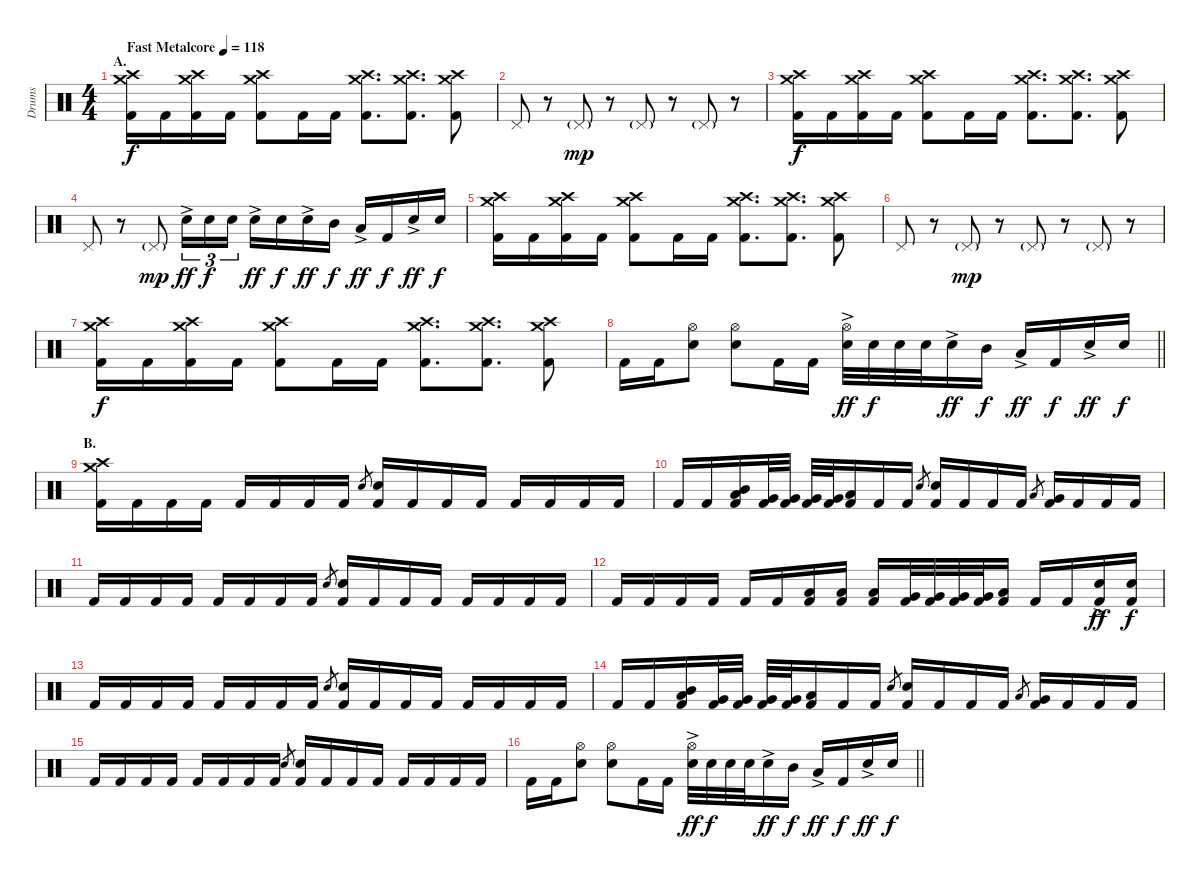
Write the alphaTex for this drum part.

\track ("Drums" "Drums") {instrument percussion}
\staff {score}
\articulation defaults
\ts (4 4)
\section ("" "A.")
\tempo (118 "Fast Metalcore")
\clef neutral
\ks c
("Crash medium (hit)" "Crash high (hit)" "Kick (hit) 2").16{dy f} "Kick (hit) 2".16 ("Crash medium (hit)" "Crash high (hit)" "Kick (hit) 2").16 "Kick (hit) 2".16 ("Crash medium (hit)" "Crash high (hit)" "Kick (hit) 2").8 "Kick (hit) 2".16 "Kick (hit) 2".16 ("Crash medium (hit)" "Crash high (hit)" "Kick (hit) 2").8{d} ("Crash medium (hit)" "Crash high (hit)" "Kick (hit) 2").8{d} ("Crash medium (hit)" "Crash high (hit)" "Kick (hit) 2").8 |
"Pedal Hi-Hat (hit)".8 r.8 "Pedal Hi-Hat (hit)"{g}.8{dy mp} r.8 "Pedal Hi-Hat (hit)"{g}.8 r.8 "Pedal Hi-Hat (hit)"{g}.8 r.8 |
("Crash medium (hit)" "Crash high (hit)" "Kick (hit) 2").16{dy f} "Kick (hit) 2".16 ("Crash medium (hit)" "Crash high (hit)" "Kick (hit) 2").16 "Kick (hit) 2".16 ("Crash medium (hit)" "Crash high (hit)" "Kick (hit) 2").8 "Kick (hit) 2".16 "Kick (hit) 2".16 ("Crash medium (hit)" "Crash high (hit)" "Kick (hit) 2").8{d} ("Crash medium (hit)" "Crash high (hit)" "Kick (hit) 2").8{d} ("Crash medium (hit)" "Crash high (hit)" "Kick (hit) 2").8 |
"Pedal Hi-Hat (hit)".8 r.8 "Pedal Hi-Hat (hit)"{g}.8{dy mp} "Electric Snare (hit)"{ac}.16{tu (3 2) dy ff} "Electric Snare (hit)".16{tu (3 2) dy f} "Electric Snare (hit)".16{tu (3 2)} "Electric Snare (hit)"{ac}.16{dy ff} "Electric Snare (hit)".16{dy f} "Electric Snare (hit)"{ac}.16{dy ff} "Mid Tom (hit)".16{dy f} "Low Tom (hit)"{ac}.16{dy ff} "Kick (hit) 2".16{dy f} "Electric Snare (hit)"{ac}.16{dy ff} "Electric Snare (hit)".16{dy f} |
("Crash medium (hit)" "Crash high (hit)" "Kick (hit) 2").16 "Kick (hit) 2".16 ("Crash medium (hit)" "Crash high (hit)" "Kick (hit) 2").16 "Kick (hit) 2".16 ("Crash medium (hit)" "Crash high (hit)" "Kick (hit) 2").8 "Kick (hit) 2".16 "Kick (hit) 2".16 ("Crash medium (hit)" "Crash high (hit)" "Kick (hit) 2").8{d} ("Crash medium (hit)" "Crash high (hit)" "Kick (hit) 2").8{d} ("Crash medium (hit)" "Crash high (hit)" "Kick (hit) 2").8 |
"Pedal Hi-Hat (hit)".8 r.8 "Pedal Hi-Hat (hit)"{g}.8{dy mp} r.8 "Pedal Hi-Hat (hit)"{g}.8 r.8 "Pedal Hi-Hat (hit)"{g}.8 r.8 |
("Crash medium (hit)" "Crash high (hit)" "Kick (hit) 2").16{dy f} "Kick (hit) 2".16 ("Crash medium (hit)" "Crash high (hit)" "Kick (hit) 2").16 "Kick (hit) 2".16 ("Crash medium (hit)" "Crash high (hit)" "Kick (hit) 2").8 "Kick (hit) 2".16 "Kick (hit) 2".16 ("Crash medium (hit)" "Crash high (hit)" "Kick (hit) 2").8{d} ("Crash medium (hit)" "Crash high (hit)" "Kick (hit) 2").8{d} ("Crash medium (hit)" "Crash high (hit)" "Kick (hit) 2").8 |
\barLineRight lightlight "Kick (hit) 2".16 "Kick (hit) 2".16
("Hi-Hat (open)" "Electric Snare (hit)").8 ("Hi-Hat (open)" "Electric Snare (hit)").8 "Kick (hit) 2".16 "Kick (hit) 2".16 ("Hi-Hat (open)" "Electric Snare (hit)"{ac}).32{dy ff} "Electric Snare (hit)".32{dy f} "Electric Snare (hit)".32 "Electric Snare (hit)".32 "Electric Snare (hit)"{ac}.16{dy ff} "Mid Tom (hit)".16{dy f} "Low Tom (hit)"{ac}.16{dy ff} "Kick (hit) 2".16{dy f} "Electric Snare (hit)"{ac}.16{dy ff} "Electric Snare (hit)".16{dy f} |
\section ("" "B.")
("Crash medium (hit)" "Crash high (hit)" "Kick (hit) 2").16 "Kick (hit) 2".16 "Kick (hit) 2".16 "Kick (hit) 2".16 "Kick (hit) 2".16 "Kick (hit) 2".16 "Kick (hit) 2".16 "Kick (hit) 2".16 "Electric Snare (hit)".8{gr} ("Electric Snare (hit)" "Kick (hit) 2").16 "Kick (hit) 2".16 "Kick (hit) 2".16 "Kick (hit) 2".16 "Kick (hit) 2".16 "Kick (hit) 2".16 "Kick (hit) 2".16 "Kick (hit) 2".16 |
"Kick (hit) 2".16 "Kick (hit) 2".16 ("Mid Tom (hit)" "Low Tom (hit)" "Kick (hit) 2").16 ("Very Low Tom (hit)" "Kick (hit) 2").32 ("Very Low Tom (hit)" "Kick (hit) 2").32 ("Very Low Tom (hit)" "Kick (hit) 2").32 ("Very Low Tom (hit)" "Kick (hit) 2").32 ("Low Floor Tom (hit)" "Kick (hit) 2").16 "Kick (hit) 2".16 "Kick (hit) 2".16 "Electric Snare (hit)".8{gr} ("Electric Snare (hit)" "Kick (hit) 2").16 "Kick (hit) 2".16 "Kick (hit) 2".16 "Kick (hit) 2".16 "Low Tom (hit)".8{gr} ("Very Low Tom (hit)" "Kick (hit) 2").16 "Kick (hit) 2".16 "Kick (hit) 2".16 "Kick (hit) 2".16 |
"Kick (hit) 2".16 "Kick (hit) 2".16 "Kick (hit) 2".16 "Kick (hit) 2".16 "Kick (hit) 2".16 "Kick (hit) 2".16 "Kick (hit) 2".16 "Kick (hit) 2".16 "Electric Snare (hit)".8{gr} ("Electric Snare (hit)" "Kick (hit) 2").16 "Kick (hit) 2".16 "Kick (hit) 2".16 "Kick (hit) 2".16 "Kick (hit) 2".16 "Kick (hit) 2".16 "Kick (hit) 2".16 "Kick (hit) 2".16 |
"Kick (hit) 2".16 "Kick (hit) 2".16 "Kick (hit) 2".16 "Kick (hit) 2".16 "Kick (hit) 2".16 "Kick (hit) 2".16 ("Low Tom (hit)" "Kick (hit) 2").16 ("Low Tom (hit)" "Kick (hit) 2").16 ("Low Tom (hit)" "Kick (hit) 2").16 ("Very Low Tom (hit)" "Kick (hit) 2").32 ("Very Low Tom (hit)" "Kick (hit) 2").32 ("Very Low Tom (hit)" "Kick (hit) 2").32 ("Very Low Tom (hit)" "Kick (hit) 2").32 ("Low Floor Tom (hit)" "Kick (hit) 2").16 "Kick (hit) 2".16 "Kick (hit) 2".16 ("Electric Snare (hit)"{ac} "Kick (hit) 2").16{dy ff} ("Electric Snare (hit)" "Kick (hit) 2").16{dy f} |
"Kick (hit) 2".16 "Kick (hit) 2".16 "Kick (hit) 2".16 "Kick (hit) 2".16 "Kick (hit) 2".16 "Kick (hit) 2".16 "Kick (hit) 2".16 "Kick (hit) 2".16 "Electric Snare (hit)".8{gr} ("Electric Snare (hit)" "Kick (hit) 2").16 "Kick (hit) 2".16 "Kick (hit) 2".16 "Kick (hit) 2".16 "Kick (hit) 2".16 "Kick (hit) 2".16 "Kick (hit) 2".16 "Kick (hit) 2".16 |
"Kick (hit) 2".16 "Kick (hit) 2".16 ("Mid Tom (hit)" "Low Tom (hit)" "Kick (hit) 2").16 ("Very Low Tom (hit)" "Kick (hit) 2").32 ("Very Low Tom (hit)" "Kick (hit) 2").32 ("Very Low Tom (hit)" "Kick (hit) 2").32 ("Very Low Tom (hit)" "Kick (hit) 2").32 ("Low Floor Tom (hit)" "Kick (hit) 2").16 "Kick (hit) 2".16 "Kick (hit) 2".16 "Electric Snare (hit)".8{gr} ("Electric Snare (hit)" "Kick (hit) 2").16 "Kick (hit) 2".16 "Kick (hit) 2".16 "Kick (hit) 2".16 "Low Tom (hit)".8{gr} ("Very Low Tom (hit)" "Kick (hit) 2").16 "Kick (hit) 2".16 "Kick (hit) 2".16 "Kick (hit) 2".16 |
"Kick (hit) 2".16 "Kick (hit) 2".16 "Kick (hit) 2".16 "Kick (hit) 2".16 "Kick (hit) 2".16 "Kick (hit) 2".16 "Kick (hit) 2".16 "Kick (hit) 2".16 "Electric Snare (hit)".8{gr} ("Electric Snare (hit)" "Kick (hit) 2").16 "Kick (hit) 2".16 "Kick (hit) 2".16 "Kick (hit) 2".16 "Kick (hit) 2".16 "Kick (hit) 2".16 "Kick (hit) 2".16 "Kick (hit) 2".16 |
\barLineRight lightlight "Kick (hit) 2".16 "Kick (hit) 2".16
("Hi-Hat (open)" "Electric Snare (hit)").8 ("Hi-Hat (open)" "Electric Snare (hit)").8 "Kick (hit) 2".16 "Kick (hit) 2".16 ("Hi-Hat (open)" "Electric Snare (hit)"{ac}).32{dy ff} "Electric Snare (hit)".32{dy f} "Electric Snare (hit)".32 "Electric Snare (hit)".32 "Electric Snare (hit)"{ac}.16{dy ff} "Mid Tom (hit)".16{dy f} "Low Tom (hit)"{ac}.16{dy ff} "Kick (hit) 2".16{dy f} "Electric Snare (hit)"{ac}.16{dy ff} "Electric Snare (hit)".16{dy f}
